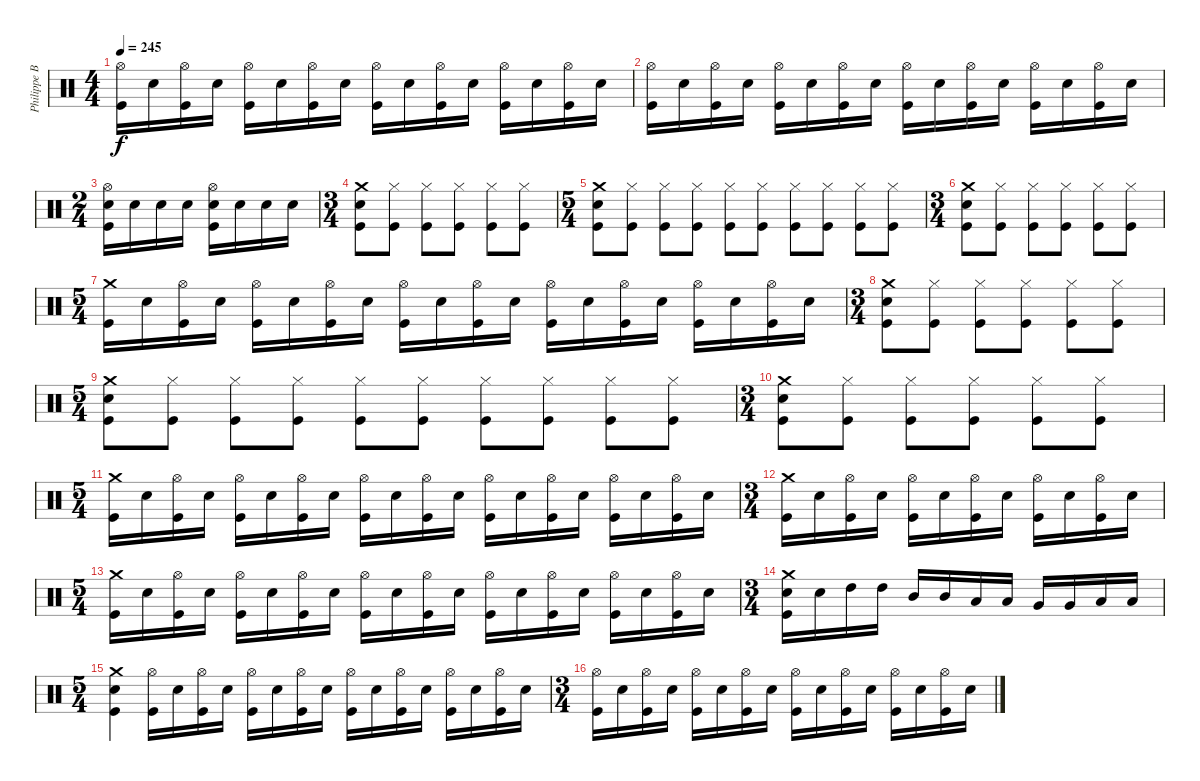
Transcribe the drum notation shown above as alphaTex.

\track ("Philippe Boucher" "Philippe B") {instrument percussion}
\staff {score}
\articulation defaults
\ts (4 4)
\tempo 245
\clef neutral
\ks c
("Hi-Hat (open)" "Kick (hit)").16{dy f} "Electric Snare (hit)".16 ("Hi-Hat (open)" "Kick (hit)").16 "Electric Snare (hit)".16 ("Hi-Hat (open)" "Kick (hit)").16 "Electric Snare (hit)".16 ("Hi-Hat (open)" "Kick (hit)").16 "Electric Snare (hit)".16 ("Hi-Hat (open)" "Kick (hit)").16 "Electric Snare (hit)".16 ("Hi-Hat (open)" "Kick (hit)").16 "Electric Snare (hit)".16 ("Hi-Hat (open)" "Kick (hit)").16 "Electric Snare (hit)".16 ("Hi-Hat (open)" "Kick (hit)").16 "Electric Snare (hit)".16 |
("Hi-Hat (open)" "Kick (hit)").16 "Electric Snare (hit)".16 ("Hi-Hat (open)" "Kick (hit)").16 "Electric Snare (hit)".16 ("Hi-Hat (open)" "Kick (hit)").16 "Electric Snare (hit)".16 ("Hi-Hat (open)" "Kick (hit)").16 "Electric Snare (hit)".16 ("Hi-Hat (open)" "Kick (hit)").16 "Electric Snare (hit)".16 ("Hi-Hat (open)" "Kick (hit)").16 "Electric Snare (hit)".16 ("Hi-Hat (open)" "Kick (hit)").16 "Electric Snare (hit)".16 ("Hi-Hat (open)" "Kick (hit)").16 "Electric Snare (hit)".16 |
\ts (2 4)
("Hi-Hat (open)" "Electric Snare (hit)" "Kick (hit)").16 "Electric Snare (hit)".16 "Electric Snare (hit)".16 "Electric Snare (hit)".16 ("Hi-Hat (open)" "Electric Snare (hit)" "Kick (hit)").16 "Electric Snare (hit)".16 "Electric Snare (hit)".16 "Electric Snare (hit)".16 |
\ts (3 4)
("Crash medium (hit)" "Electric Snare (hit)" "Kick (hit)").8 ("Hi-Hat (closed)" "Kick (hit)").8 ("Hi-Hat (closed)" "Kick (hit)").8 ("Hi-Hat (closed)" "Kick (hit)").8 ("Hi-Hat (closed)" "Kick (hit)").8 ("Hi-Hat (closed)" "Kick (hit)").8 |
\ts (5 4)
("Crash medium (hit)" "Electric Snare (hit)" "Kick (hit)").8 ("Hi-Hat (closed)" "Kick (hit)").8 ("Hi-Hat (closed)" "Kick (hit)").8 ("Hi-Hat (closed)" "Kick (hit)").8 ("Hi-Hat (closed)" "Kick (hit)").8 ("Hi-Hat (closed)" "Kick (hit)").8 ("Hi-Hat (closed)" "Kick (hit)").8 ("Hi-Hat (closed)" "Kick (hit)").8 ("Hi-Hat (closed)" "Kick (hit)").8 ("Hi-Hat (closed)" "Kick (hit)").8 |
\ts (3 4)
("Crash medium (hit)" "Electric Snare (hit)" "Kick (hit)").8 ("Hi-Hat (closed)" "Kick (hit)").8 ("Hi-Hat (closed)" "Kick (hit)").8 ("Hi-Hat (closed)" "Kick (hit)").8 ("Hi-Hat (closed)" "Kick (hit)").8 ("Hi-Hat (closed)" "Kick (hit)").8 |
\ts (5 4)
("Crash medium (hit)" "Kick (hit)").16 "Electric Snare (hit)".16 ("Hi-Hat (open)" "Kick (hit)").16 "Electric Snare (hit)".16 ("Hi-Hat (open)" "Kick (hit)").16 "Electric Snare (hit)".16 ("Hi-Hat (open)" "Kick (hit)").16 "Electric Snare (hit)".16 ("Hi-Hat (open)" "Kick (hit)").16 "Electric Snare (hit)".16 ("Hi-Hat (open)" "Kick (hit)").16 "Electric Snare (hit)".16 ("Hi-Hat (open)" "Kick (hit)").16 "Electric Snare (hit)".16 ("Hi-Hat (open)" "Kick (hit)").16 "Electric Snare (hit)".16 ("Hi-Hat (open)" "Kick (hit)").16 "Electric Snare (hit)".16 ("Hi-Hat (open)" "Kick (hit)").16 "Electric Snare (hit)".16 |
\ts (3 4)
("Crash medium (hit)" "Electric Snare (hit)" "Kick (hit)").8 ("Hi-Hat (closed)" "Kick (hit)").8 ("Hi-Hat (closed)" "Kick (hit)").8 ("Hi-Hat (closed)" "Kick (hit)").8 ("Hi-Hat (closed)" "Kick (hit)").8 ("Hi-Hat (closed)" "Kick (hit)").8 |
\ts (5 4)
("Crash medium (hit)" "Electric Snare (hit)" "Kick (hit)").8 ("Hi-Hat (closed)" "Kick (hit)").8 ("Hi-Hat (closed)" "Kick (hit)").8 ("Hi-Hat (closed)" "Kick (hit)").8 ("Hi-Hat (closed)" "Kick (hit)").8 ("Hi-Hat (closed)" "Kick (hit)").8 ("Hi-Hat (closed)" "Kick (hit)").8 ("Hi-Hat (closed)" "Kick (hit)").8 ("Hi-Hat (closed)" "Kick (hit)").8 ("Hi-Hat (closed)" "Kick (hit)").8 |
\ts (3 4)
("Crash medium (hit)" "Electric Snare (hit)" "Kick (hit)").8 ("Hi-Hat (closed)" "Kick (hit)").8 ("Hi-Hat (closed)" "Kick (hit)").8 ("Hi-Hat (closed)" "Kick (hit)").8 ("Hi-Hat (closed)" "Kick (hit)").8 ("Hi-Hat (closed)" "Kick (hit)").8 |
\ts (5 4)
("Crash medium (hit)" "Kick (hit)").16 "Electric Snare (hit)".16 ("Hi-Hat (open)" "Kick (hit)").16 "Electric Snare (hit)".16 ("Hi-Hat (open)" "Kick (hit)").16 "Electric Snare (hit)".16 ("Hi-Hat (open)" "Kick (hit)").16 "Electric Snare (hit)".16 ("Hi-Hat (open)" "Kick (hit)").16 "Electric Snare (hit)".16 ("Hi-Hat (open)" "Kick (hit)").16 "Electric Snare (hit)".16 ("Hi-Hat (open)" "Kick (hit)").16 "Electric Snare (hit)".16 ("Hi-Hat (open)" "Kick (hit)").16 "Electric Snare (hit)".16 ("Hi-Hat (open)" "Kick (hit)").16 "Electric Snare (hit)".16 ("Hi-Hat (open)" "Kick (hit)").16 "Electric Snare (hit)".16 |
\ts (3 4)
("Crash medium (hit)" "Kick (hit)").16 "Electric Snare (hit)".16 ("Hi-Hat (open)" "Kick (hit)").16 "Electric Snare (hit)".16 ("Hi-Hat (open)" "Kick (hit)").16 "Electric Snare (hit)".16 ("Hi-Hat (open)" "Kick (hit)").16 "Electric Snare (hit)".16 ("Hi-Hat (open)" "Kick (hit)").16 "Electric Snare (hit)".16 ("Hi-Hat (open)" "Kick (hit)").16 "Electric Snare (hit)".16 |
\ts (5 4)
("Crash medium (hit)" "Kick (hit)").16 "Electric Snare (hit)".16 ("Hi-Hat (open)" "Kick (hit)").16 "Electric Snare (hit)".16 ("Hi-Hat (open)" "Kick (hit)").16 "Electric Snare (hit)".16 ("Hi-Hat (open)" "Kick (hit)").16 "Electric Snare (hit)".16 ("Hi-Hat (open)" "Kick (hit)").16 "Electric Snare (hit)".16 ("Hi-Hat (open)" "Kick (hit)").16 "Electric Snare (hit)".16 ("Hi-Hat (open)" "Kick (hit)").16 "Electric Snare (hit)".16 ("Hi-Hat (open)" "Kick (hit)").16 "Electric Snare (hit)".16 ("Hi-Hat (open)" "Kick (hit)").16 "Electric Snare (hit)".16 ("Hi-Hat (open)" "Kick (hit)").16 "Electric Snare (hit)".16 |
\ts (3 4)
("Crash medium (hit)" "Electric Snare (hit)" "Kick (hit)").16 "Electric Snare (hit)".16 "High Tom (hit)".16 "High Tom (hit)".16 "Mid Tom (hit)".16 "Mid Tom (hit)".16 "Low Tom (hit)".16 "Low Tom (hit)".16 "Very Low Tom (hit)".16 "Very Low Tom (hit)".16 "Low Floor Tom (hit)".16 "Low Floor Tom (hit)".16 |
\ts (5 4)
("Crash medium (hit)" "Electric Snare (hit)" "Kick (hit)").4 ("Hi-Hat (open)" "Kick (hit)").16 "Electric Snare (hit)".16 ("Hi-Hat (open)" "Kick (hit)").16 "Electric Snare (hit)".16 ("Hi-Hat (open)" "Kick (hit)").16 "Electric Snare (hit)".16 ("Hi-Hat (open)" "Kick (hit)").16 "Electric Snare (hit)".16 ("Hi-Hat (open)" "Kick (hit)").16 "Electric Snare (hit)".16 ("Hi-Hat (open)" "Kick (hit)").16 "Electric Snare (hit)".16 ("Hi-Hat (open)" "Kick (hit)").16 "Electric Snare (hit)".16 ("Hi-Hat (open)" "Kick (hit)").16 "Electric Snare (hit)".16 |
\ts (3 4)
("Hi-Hat (open)" "Kick (hit)").16 "Electric Snare (hit)".16 ("Hi-Hat (open)" "Kick (hit)").16 "Electric Snare (hit)".16 ("Hi-Hat (open)" "Kick (hit)").16 "Electric Snare (hit)".16 ("Hi-Hat (open)" "Kick (hit)").16 "Electric Snare (hit)".16 ("Hi-Hat (open)" "Kick (hit)").16 "Electric Snare (hit)".16 ("Hi-Hat (open)" "Kick (hit)").16 "Electric Snare (hit)".16 ("Hi-Hat (open)" "Kick (hit)").16 "Electric Snare (hit)".16 ("Hi-Hat (open)" "Kick (hit)").16 "Electric Snare (hit)".16
